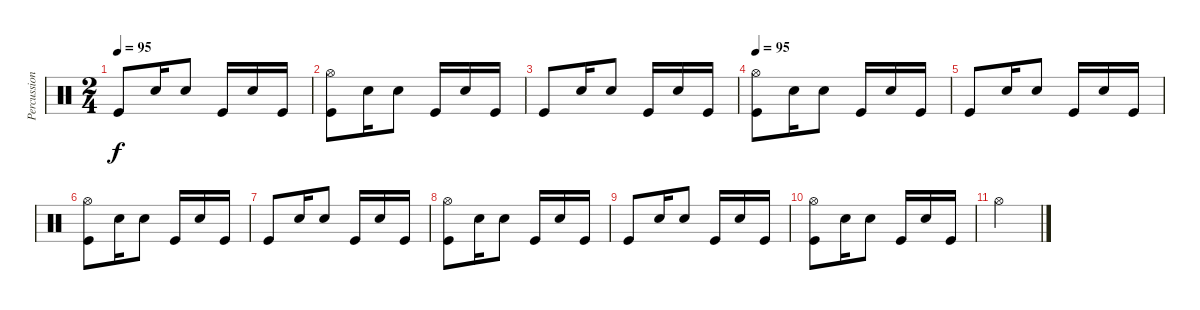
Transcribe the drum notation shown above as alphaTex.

\track ("Percussions" "Percussion") {instrument percussion}
\staff {score}
\articulation defaults
\ts (2 4)
\tempo 95
\clef neutral
\ks c "Kick (hit)".8{dy f} "Electric Snare (hit)".16 "Electric Snare (hit)".8 "Kick (hit)".16 "Electric Snare (hit)".16 "Kick (hit)".16
|
("Hi-Hat (open)" "Kick (hit)").8 "Electric Snare (hit)".16 "Electric Snare (hit)".8 "Kick (hit)".16 "Electric Snare (hit)".16 "Kick (hit)".16 |
"Kick (hit)".8 "Electric Snare (hit)".16 "Electric Snare (hit)".8 "Kick (hit)".16 "Electric Snare (hit)".16 "Kick (hit)".16 |
\tempo 95
("Hi-Hat (open)" "Kick (hit)").8 "Electric Snare (hit)".16 "Electric Snare (hit)".8 "Kick (hit)".16 "Electric Snare (hit)".16 "Kick (hit)".16 |
"Kick (hit)".8 "Electric Snare (hit)".16 "Electric Snare (hit)".8 "Kick (hit)".16 "Electric Snare (hit)".16 "Kick (hit)".16 |
("Hi-Hat (open)" "Kick (hit)").8 "Electric Snare (hit)".16 "Electric Snare (hit)".8 "Kick (hit)".16 "Electric Snare (hit)".16 "Kick (hit)".16 |
"Kick (hit)".8 "Electric Snare (hit)".16 "Electric Snare (hit)".8 "Kick (hit)".16 "Electric Snare (hit)".16 "Kick (hit)".16 |
("Hi-Hat (open)" "Kick (hit)").8 "Electric Snare (hit)".16 "Electric Snare (hit)".8 "Kick (hit)".16 "Electric Snare (hit)".16 "Kick (hit)".16 |
"Kick (hit)".8 "Electric Snare (hit)".16 "Electric Snare (hit)".8 "Kick (hit)".16 "Electric Snare (hit)".16 "Kick (hit)".16 |
("Hi-Hat (open)" "Kick (hit)").8 "Electric Snare (hit)".16 "Electric Snare (hit)".8 "Kick (hit)".16 "Electric Snare (hit)".16 "Kick (hit)".16 |
"Hi-Hat (open)".2
